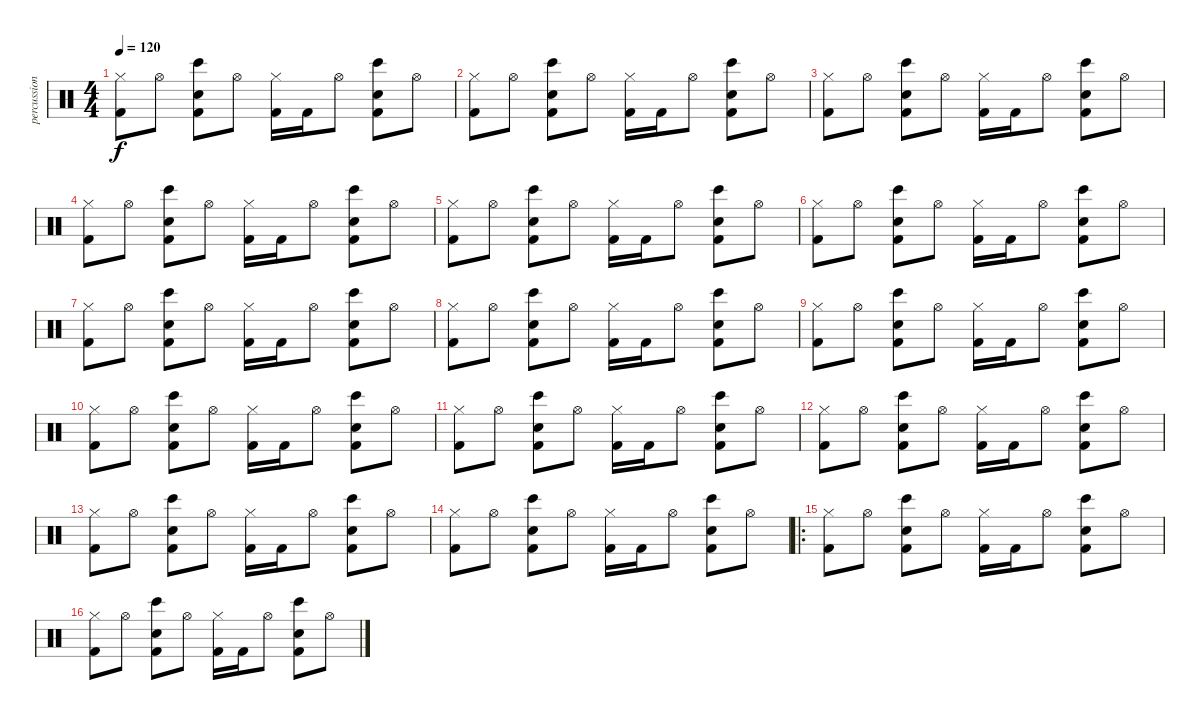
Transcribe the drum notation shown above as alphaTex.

\track ("percussion" "percussion") {instrument percussion}
\staff {score}
\articulation defaults
\ts (4 4)
\tempo 120
\clef neutral
\ks c
("Hi-Hat (closed)" "Kick (hit) 2").8{dy f} "Hi-Hat (open)".8 ("Hand Clap (hit)" "Bongo High (hit)" "Kick (hit) 2").8 "Hi-Hat (open)".8 ("Hi-Hat (closed)" "Kick (hit) 2").16 "Kick (hit) 2".16 "Hi-Hat (open)".8 ("Hand Clap (hit)" "Bongo High (hit)" "Kick (hit) 2").8 "Hi-Hat (open)".8 |
("Hi-Hat (closed)" "Kick (hit) 2").8 "Hi-Hat (open)".8 ("Hand Clap (hit)" "Bongo High (hit)" "Kick (hit) 2").8 "Hi-Hat (open)".8 ("Hi-Hat (closed)" "Kick (hit) 2").16 "Kick (hit) 2".16 "Hi-Hat (open)".8 ("Hand Clap (hit)" "Bongo High (hit)" "Kick (hit) 2").8 "Hi-Hat (open)".8 |
("Hi-Hat (closed)" "Kick (hit) 2").8 "Hi-Hat (open)".8 ("Hand Clap (hit)" "Bongo High (hit)" "Kick (hit) 2").8 "Hi-Hat (open)".8 ("Hi-Hat (closed)" "Kick (hit) 2").16 "Kick (hit) 2".16 "Hi-Hat (open)".8 ("Hand Clap (hit)" "Bongo High (hit)" "Kick (hit) 2").8 "Hi-Hat (open)".8 |
("Hi-Hat (closed)" "Kick (hit) 2").8 "Hi-Hat (open)".8 ("Hand Clap (hit)" "Bongo High (hit)" "Kick (hit) 2").8 "Hi-Hat (open)".8 ("Hi-Hat (closed)" "Kick (hit) 2").16 "Kick (hit) 2".16 "Hi-Hat (open)".8 ("Hand Clap (hit)" "Bongo High (hit)" "Kick (hit) 2").8 "Hi-Hat (open)".8 |
("Hi-Hat (closed)" "Kick (hit) 2").8 "Hi-Hat (open)".8 ("Hand Clap (hit)" "Bongo High (hit)" "Kick (hit) 2").8 "Hi-Hat (open)".8 ("Hi-Hat (closed)" "Kick (hit) 2").16 "Kick (hit) 2".16 "Hi-Hat (open)".8 ("Hand Clap (hit)" "Bongo High (hit)" "Kick (hit) 2").8 "Hi-Hat (open)".8 |
("Hi-Hat (closed)" "Kick (hit) 2").8 "Hi-Hat (open)".8 ("Hand Clap (hit)" "Bongo High (hit)" "Kick (hit) 2").8 "Hi-Hat (open)".8 ("Hi-Hat (closed)" "Kick (hit) 2").16 "Kick (hit) 2".16 "Hi-Hat (open)".8 ("Hand Clap (hit)" "Bongo High (hit)" "Kick (hit) 2").8 "Hi-Hat (open)".8 |
("Hi-Hat (closed)" "Kick (hit) 2").8 "Hi-Hat (open)".8 ("Hand Clap (hit)" "Bongo High (hit)" "Kick (hit) 2").8 "Hi-Hat (open)".8 ("Hi-Hat (closed)" "Kick (hit) 2").16 "Kick (hit) 2".16 "Hi-Hat (open)".8 ("Hand Clap (hit)" "Bongo High (hit)" "Kick (hit) 2").8 "Hi-Hat (open)".8 |
("Hi-Hat (closed)" "Kick (hit) 2").8 "Hi-Hat (open)".8 ("Hand Clap (hit)" "Bongo High (hit)" "Kick (hit) 2").8 "Hi-Hat (open)".8 ("Hi-Hat (closed)" "Kick (hit) 2").16 "Kick (hit) 2".16 "Hi-Hat (open)".8 ("Hand Clap (hit)" "Bongo High (hit)" "Kick (hit) 2").8 "Hi-Hat (open)".8 |
("Hi-Hat (closed)" "Kick (hit) 2").8 "Hi-Hat (open)".8 ("Hand Clap (hit)" "Bongo High (hit)" "Kick (hit) 2").8 "Hi-Hat (open)".8 ("Hi-Hat (closed)" "Kick (hit) 2").16 "Kick (hit) 2".16 "Hi-Hat (open)".8 ("Hand Clap (hit)" "Bongo High (hit)" "Kick (hit) 2").8 "Hi-Hat (open)".8 |
("Hi-Hat (closed)" "Kick (hit) 2").8 "Hi-Hat (open)".8 ("Hand Clap (hit)" "Bongo High (hit)" "Kick (hit) 2").8 "Hi-Hat (open)".8 ("Hi-Hat (closed)" "Kick (hit) 2").16 "Kick (hit) 2".16 "Hi-Hat (open)".8 ("Hand Clap (hit)" "Bongo High (hit)" "Kick (hit) 2").8 "Hi-Hat (open)".8 |
("Hi-Hat (closed)" "Kick (hit) 2").8 "Hi-Hat (open)".8 ("Hand Clap (hit)" "Bongo High (hit)" "Kick (hit) 2").8 "Hi-Hat (open)".8 ("Hi-Hat (closed)" "Kick (hit) 2").16 "Kick (hit) 2".16 "Hi-Hat (open)".8 ("Hand Clap (hit)" "Bongo High (hit)" "Kick (hit) 2").8 "Hi-Hat (open)".8 |
("Hi-Hat (closed)" "Kick (hit) 2").8 "Hi-Hat (open)".8 ("Hand Clap (hit)" "Bongo High (hit)" "Kick (hit) 2").8 "Hi-Hat (open)".8 ("Hi-Hat (closed)" "Kick (hit) 2").16 "Kick (hit) 2".16 "Hi-Hat (open)".8 ("Hand Clap (hit)" "Bongo High (hit)" "Kick (hit) 2").8 "Hi-Hat (open)".8 |
("Hi-Hat (closed)" "Kick (hit) 2").8 "Hi-Hat (open)".8 ("Hand Clap (hit)" "Bongo High (hit)" "Kick (hit) 2").8 "Hi-Hat (open)".8 ("Hi-Hat (closed)" "Kick (hit) 2").16 "Kick (hit) 2".16 "Hi-Hat (open)".8 ("Hand Clap (hit)" "Bongo High (hit)" "Kick (hit) 2").8 "Hi-Hat (open)".8 |
("Hi-Hat (closed)" "Kick (hit) 2").8 "Hi-Hat (open)".8 ("Hand Clap (hit)" "Bongo High (hit)" "Kick (hit) 2").8 "Hi-Hat (open)".8 ("Hi-Hat (closed)" "Kick (hit) 2").16 "Kick (hit) 2".16 "Hi-Hat (open)".8 ("Hand Clap (hit)" "Bongo High (hit)" "Kick (hit) 2").8 "Hi-Hat (open)".8 |
\ro
("Hi-Hat (closed)" "Kick (hit) 2").8 "Hi-Hat (open)".8 ("Hand Clap (hit)" "Bongo High (hit)" "Kick (hit) 2").8 "Hi-Hat (open)".8 ("Hi-Hat (closed)" "Kick (hit) 2").16 "Kick (hit) 2".16 "Hi-Hat (open)".8 ("Hand Clap (hit)" "Bongo High (hit)" "Kick (hit) 2").8 "Hi-Hat (open)".8 |
("Hi-Hat (closed)" "Kick (hit) 2").8 "Hi-Hat (open)".8 ("Hand Clap (hit)" "Bongo High (hit)" "Kick (hit) 2").8 "Hi-Hat (open)".8 ("Hi-Hat (closed)" "Kick (hit) 2").16 "Kick (hit) 2".16 "Hi-Hat (open)".8 ("Hand Clap (hit)" "Bongo High (hit)" "Kick (hit) 2").8 "Hi-Hat (open)".8
